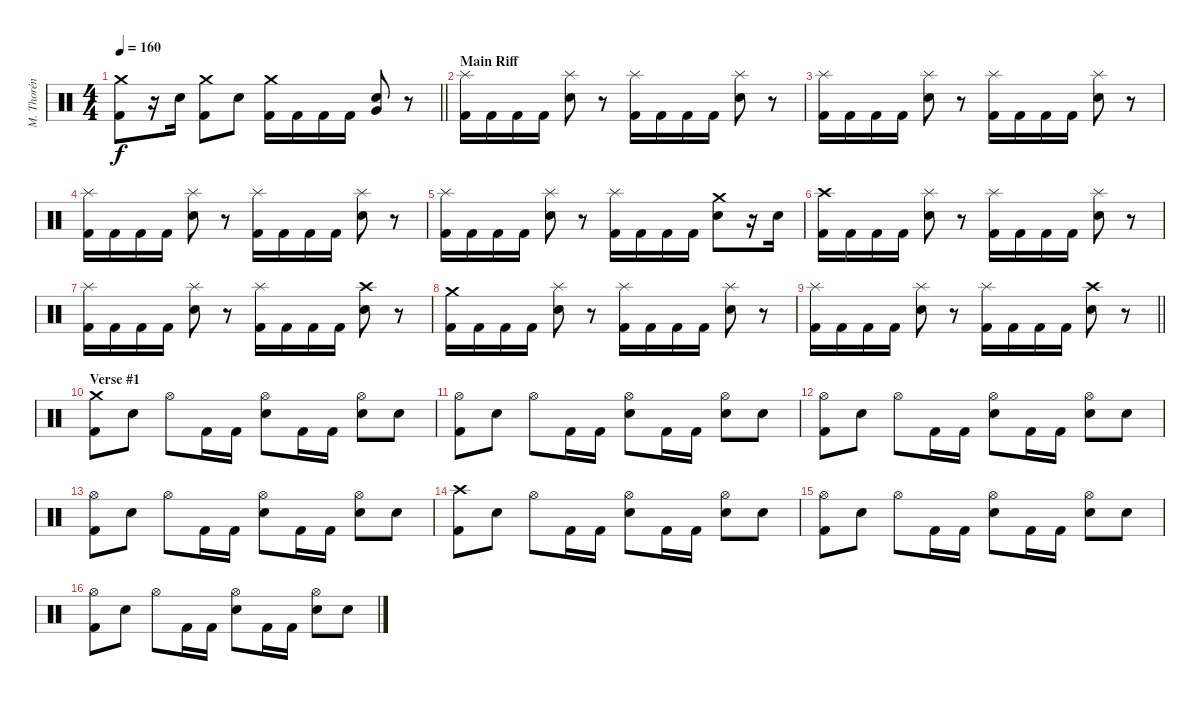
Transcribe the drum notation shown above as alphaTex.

\track ("M. Thorén (Drums)" "M. Thorén ") {instrument percussion}
\staff {score}
\articulation defaults
\ts (4 4)
\tempo 160
\clef neutral
\barLineRight lightlight
\ks c
("Crash medium (hit)" "Kick (hit) 2").8{dy f} r.16 "Electric Snare (hit)".16 ("Crash medium (hit)" "Kick (hit) 2").8 "Electric Snare (hit)".8 ("Crash medium (hit)" "Kick (hit) 2").16 "Kick (hit) 2".16 "Kick (hit) 2".16 "Kick (hit) 2".16 ("Electric Snare (hit)" "Very Low Tom (hit)").8 r.8 |
\section ("" "Main Riff")
("Splash (hit)" "Kick (hit) 2").16 "Kick (hit) 2".16 "Kick (hit) 2".16 "Kick (hit) 2".16 ("Splash (hit)" "Electric Snare (hit)").8 r.8 ("Splash (hit)" "Kick (hit) 2").16 "Kick (hit) 2".16 "Kick (hit) 2".16 "Kick (hit) 2".16 ("Splash (hit)" "Electric Snare (hit)").8 r.8 |
("Splash (hit)" "Kick (hit) 2").16 "Kick (hit) 2".16 "Kick (hit) 2".16 "Kick (hit) 2".16 ("Splash (hit)" "Electric Snare (hit)").8 r.8 ("Splash (hit)" "Kick (hit) 2").16 "Kick (hit) 2".16 "Kick (hit) 2".16 "Kick (hit) 2".16 ("Splash (hit)" "Electric Snare (hit)").8 r.8 |
("Splash (hit)" "Kick (hit) 2").16 "Kick (hit) 2".16 "Kick (hit) 2".16 "Kick (hit) 2".16 ("Splash (hit)" "Electric Snare (hit)").8 r.8 ("Splash (hit)" "Kick (hit) 2").16 "Kick (hit) 2".16 "Kick (hit) 2".16 "Kick (hit) 2".16 ("Splash (hit)" "Electric Snare (hit)").8 r.8 |
("Splash (hit)" "Kick (hit) 2").16 "Kick (hit) 2".16 "Kick (hit) 2".16 "Kick (hit) 2".16 ("Splash (hit)" "Electric Snare (hit)").8 r.8 ("Splash (hit)" "Kick (hit) 2").16 "Kick (hit) 2".16 "Kick (hit) 2".16 "Kick (hit) 2".16 ("Crash medium (hit)" "Electric Snare (hit)").8 r.16 "Electric Snare (hit)".16 |
("Crash high (hit)" "Kick (hit) 2").16 "Kick (hit) 2".16 "Kick (hit) 2".16 "Kick (hit) 2".16 ("Splash (hit)" "Electric Snare (hit)").8 r.8 ("Splash (hit)" "Kick (hit) 2").16 "Kick (hit) 2".16 "Kick (hit) 2".16 "Kick (hit) 2".16 ("Splash (hit)" "Electric Snare (hit)").8 r.8 |
("Splash (hit)" "Kick (hit) 2").16 "Kick (hit) 2".16 "Kick (hit) 2".16 "Kick (hit) 2".16 ("Splash (hit)" "Electric Snare (hit)").8 r.8 ("Splash (hit)" "Kick (hit) 2").16 "Kick (hit) 2".16 "Kick (hit) 2".16 "Kick (hit) 2".16 ("Crash high (hit)" "Electric Snare (hit)").8 r.8 |
("Crash medium (hit)" "Kick (hit) 2").16 "Kick (hit) 2".16 "Kick (hit) 2".16 "Kick (hit) 2".16 ("Splash (hit)" "Electric Snare (hit)").8 r.8 ("Splash (hit)" "Kick (hit) 2").16 "Kick (hit) 2".16 "Kick (hit) 2".16 "Kick (hit) 2".16 ("Splash (hit)" "Electric Snare (hit)").8 r.8 |
\barLineRight lightlight
("Splash (hit)" "Kick (hit) 2").16 "Kick (hit) 2".16 "Kick (hit) 2".16 "Kick (hit) 2".16 ("Splash (hit)" "Electric Snare (hit)").8 r.8 ("Splash (hit)" "Kick (hit) 2").16 "Kick (hit) 2".16 "Kick (hit) 2".16 "Kick (hit) 2".16 ("Crash high (hit)" "Electric Snare (hit)").8 r.8 |
\section ("" "Verse #1")
("Crash medium (hit)" "Kick (hit) 2").8 "Electric Snare (hit)".8 "Hi-Hat (open)".8 "Kick (hit) 2".16 "Kick (hit) 2".16 ("Hi-Hat (open)" "Electric Snare (hit)").8 "Kick (hit) 2".16 "Kick (hit) 2".16 ("Hi-Hat (open)" "Electric Snare (hit)").8 "Electric Snare (hit)".8 |
("Hi-Hat (open)" "Kick (hit) 2").8 "Electric Snare (hit)".8 "Hi-Hat (open)".8 "Kick (hit) 2".16 "Kick (hit) 2".16 ("Hi-Hat (open)" "Electric Snare (hit)").8 "Kick (hit) 2".16 "Kick (hit) 2".16 ("Hi-Hat (open)" "Electric Snare (hit)").8 "Electric Snare (hit)".8 |
("Hi-Hat (open)" "Kick (hit) 2").8 "Electric Snare (hit)".8 "Hi-Hat (open)".8 "Kick (hit) 2".16 "Kick (hit) 2".16 ("Hi-Hat (open)" "Electric Snare (hit)").8 "Kick (hit) 2".16 "Kick (hit) 2".16 ("Hi-Hat (open)" "Electric Snare (hit)").8 "Electric Snare (hit)".8 |
("Hi-Hat (open)" "Kick (hit) 2").8 "Electric Snare (hit)".8 "Hi-Hat (open)".8 "Kick (hit) 2".16 "Kick (hit) 2".16 ("Hi-Hat (open)" "Electric Snare (hit)").8 "Kick (hit) 2".16 "Kick (hit) 2".16 ("Hi-Hat (open)" "Electric Snare (hit)").8 "Electric Snare (hit)".8 |
("Crash high (hit)" "Kick (hit) 2").8 "Electric Snare (hit)".8 "Hi-Hat (open)".8 "Kick (hit) 2".16 "Kick (hit) 2".16 ("Hi-Hat (open)" "Electric Snare (hit)").8 "Kick (hit) 2".16 "Kick (hit) 2".16 ("Hi-Hat (open)" "Electric Snare (hit)").8 "Electric Snare (hit)".8 |
("Hi-Hat (open)" "Kick (hit) 2").8 "Electric Snare (hit)".8 "Hi-Hat (open)".8 "Kick (hit) 2".16 "Kick (hit) 2".16 ("Hi-Hat (open)" "Electric Snare (hit)").8 "Kick (hit) 2".16 "Kick (hit) 2".16 ("Hi-Hat (open)" "Electric Snare (hit)").8 "Electric Snare (hit)".8 |
("Hi-Hat (open)" "Kick (hit) 2").8 "Electric Snare (hit)".8 "Hi-Hat (open)".8 "Kick (hit) 2".16 "Kick (hit) 2".16 ("Hi-Hat (open)" "Electric Snare (hit)").8 "Kick (hit) 2".16 "Kick (hit) 2".16 ("Hi-Hat (open)" "Electric Snare (hit)").8 "Electric Snare (hit)".8
